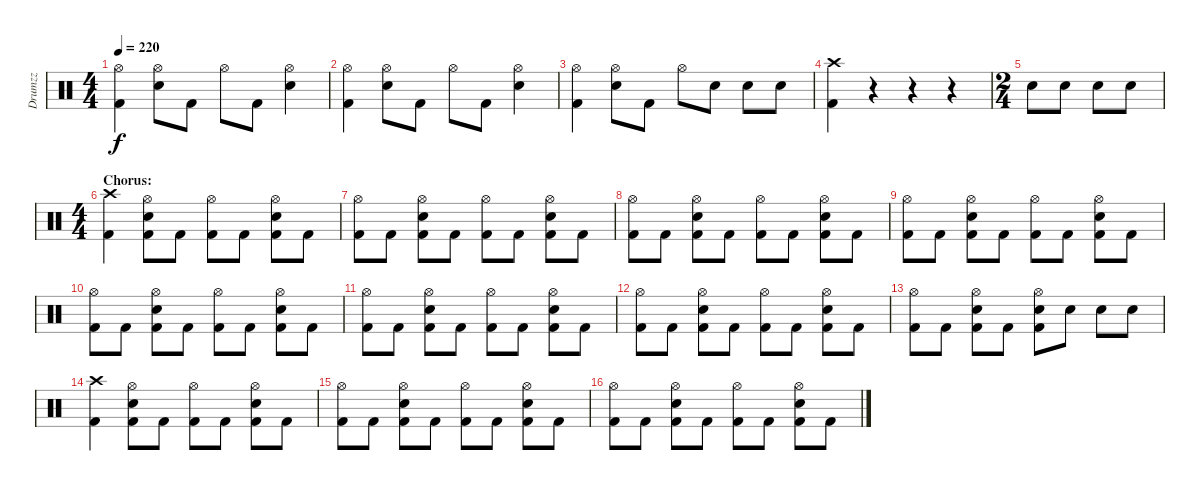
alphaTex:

\track ("Drumzz" "Drumzz") {instrument percussion}
\staff {score}
\articulation defaults
\ts (4 4)
\tempo 220
\clef neutral
\ks c
("Hi-Hat (open)" "Kick (hit) 2").4{dy f} ("Hi-Hat (open)" "Electric Snare (hit)").8 "Kick (hit) 2".8 "Hi-Hat (open)".8 "Kick (hit) 2".8 ("Hi-Hat (open)" "Electric Snare (hit)").4 |
("Hi-Hat (open)" "Kick (hit) 2").4 ("Hi-Hat (open)" "Electric Snare (hit)").8 "Kick (hit) 2".8 "Hi-Hat (open)".8 "Kick (hit) 2".8 ("Hi-Hat (open)" "Electric Snare (hit)").4 |
("Hi-Hat (open)" "Kick (hit) 2").4 ("Hi-Hat (open)" "Electric Snare (hit)").8 "Kick (hit) 2".8 "Hi-Hat (open)".8 "Electric Snare (hit)".8 "Electric Snare (hit)".8 "Electric Snare (hit)".8 |
("Crash high (hit)" "Kick (hit) 2").4 r.4 r.4 r.4 |
\ts (2 4)
"Electric Snare (hit)".8 "Electric Snare (hit)".8 "Electric Snare (hit)".8 "Electric Snare (hit)".8 |
\ts (4 4)
\section ("" "Chorus:")
("Crash high (hit)" "Kick (hit) 2").4 ("Hi-Hat (open)" "Electric Snare (hit)" "Kick (hit) 2").8 "Kick (hit) 2".8 ("Hi-Hat (open)" "Kick (hit) 2").8 "Kick (hit) 2".8 ("Hi-Hat (open)" "Electric Snare (hit)" "Kick (hit) 2").8 "Kick (hit) 2".8 |
("Hi-Hat (open)" "Kick (hit) 2").8 "Kick (hit) 2".8 ("Hi-Hat (open)" "Electric Snare (hit)" "Kick (hit) 2").8 "Kick (hit) 2".8 ("Hi-Hat (open)" "Kick (hit) 2").8 "Kick (hit) 2".8 ("Hi-Hat (open)" "Electric Snare (hit)" "Kick (hit) 2").8 "Kick (hit) 2".8 |
("Hi-Hat (open)" "Kick (hit) 2").8 "Kick (hit) 2".8 ("Hi-Hat (open)" "Electric Snare (hit)" "Kick (hit) 2").8 "Kick (hit) 2".8 ("Hi-Hat (open)" "Kick (hit) 2").8 "Kick (hit) 2".8 ("Hi-Hat (open)" "Electric Snare (hit)" "Kick (hit) 2").8 "Kick (hit) 2".8 |
("Hi-Hat (open)" "Kick (hit) 2").8 "Kick (hit) 2".8 ("Hi-Hat (open)" "Electric Snare (hit)" "Kick (hit) 2").8 "Kick (hit) 2".8 ("Hi-Hat (open)" "Kick (hit) 2").8 "Kick (hit) 2".8 ("Hi-Hat (open)" "Electric Snare (hit)" "Kick (hit) 2").8 "Kick (hit) 2".8 |
("Hi-Hat (open)" "Kick (hit) 2").8 "Kick (hit) 2".8 ("Hi-Hat (open)" "Electric Snare (hit)" "Kick (hit) 2").8 "Kick (hit) 2".8 ("Hi-Hat (open)" "Kick (hit) 2").8 "Kick (hit) 2".8 ("Hi-Hat (open)" "Electric Snare (hit)" "Kick (hit) 2").8 "Kick (hit) 2".8 |
("Hi-Hat (open)" "Kick (hit) 2").8 "Kick (hit) 2".8 ("Hi-Hat (open)" "Electric Snare (hit)" "Kick (hit) 2").8 "Kick (hit) 2".8 ("Hi-Hat (open)" "Kick (hit) 2").8 "Kick (hit) 2".8 ("Hi-Hat (open)" "Electric Snare (hit)" "Kick (hit) 2").8 "Kick (hit) 2".8 |
("Hi-Hat (open)" "Kick (hit) 2").8 "Kick (hit) 2".8 ("Hi-Hat (open)" "Electric Snare (hit)" "Kick (hit) 2").8 "Kick (hit) 2".8 ("Hi-Hat (open)" "Kick (hit) 2").8 "Kick (hit) 2".8 ("Hi-Hat (open)" "Electric Snare (hit)" "Kick (hit) 2").8 "Kick (hit) 2".8 |
("Hi-Hat (open)" "Kick (hit) 2").8 "Kick (hit) 2".8 ("Hi-Hat (open)" "Electric Snare (hit)" "Kick (hit) 2").8 "Kick (hit) 2".8 ("Hi-Hat (open)" "Electric Snare (hit)" "Kick (hit) 2").8 "Electric Snare (hit)".8 "Electric Snare (hit)".8 "Electric Snare (hit)".8 |
("Crash high (hit)" "Kick (hit) 2").4 ("Hi-Hat (open)" "Electric Snare (hit)" "Kick (hit) 2").8 "Kick (hit) 2".8 ("Hi-Hat (open)" "Kick (hit) 2").8 "Kick (hit) 2".8 ("Hi-Hat (open)" "Electric Snare (hit)" "Kick (hit) 2").8 "Kick (hit) 2".8 |
("Hi-Hat (open)" "Kick (hit) 2").8 "Kick (hit) 2".8 ("Hi-Hat (open)" "Electric Snare (hit)" "Kick (hit) 2").8 "Kick (hit) 2".8 ("Hi-Hat (open)" "Kick (hit) 2").8 "Kick (hit) 2".8 ("Hi-Hat (open)" "Electric Snare (hit)" "Kick (hit) 2").8 "Kick (hit) 2".8 |
("Hi-Hat (open)" "Kick (hit) 2").8 "Kick (hit) 2".8 ("Hi-Hat (open)" "Electric Snare (hit)" "Kick (hit) 2").8 "Kick (hit) 2".8 ("Hi-Hat (open)" "Kick (hit) 2").8 "Kick (hit) 2".8 ("Hi-Hat (open)" "Electric Snare (hit)" "Kick (hit) 2").8 "Kick (hit) 2".8
